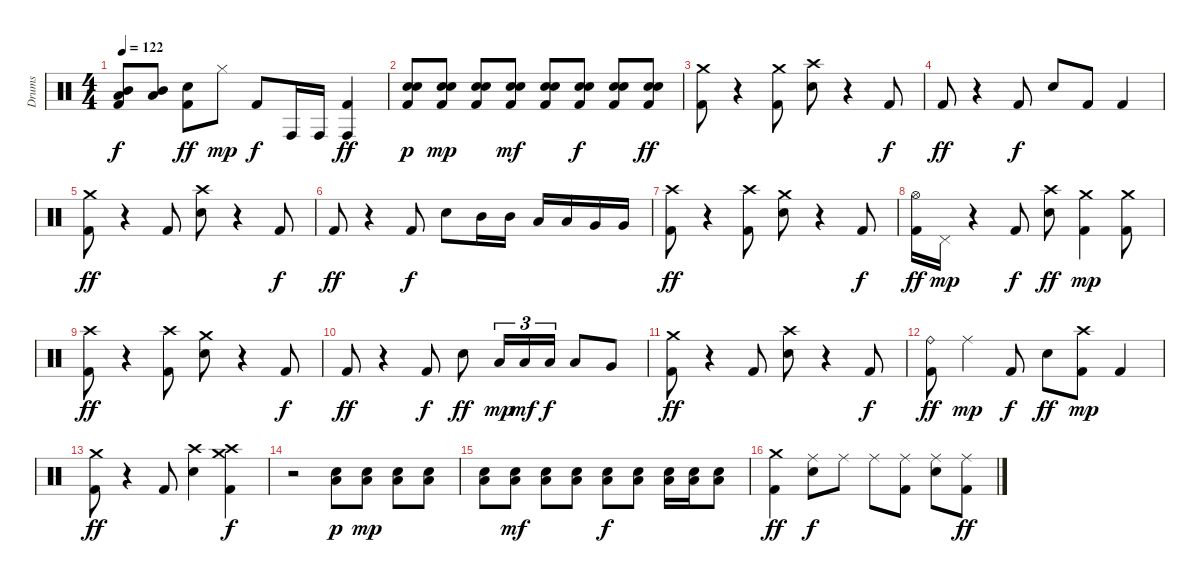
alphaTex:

\track ("Drums" "Drums") {instrument percussion}
\staff {score}
\articulation defaults
\ts (4 4)
\tempo 122
\clef neutral
\ks c
("Mid Tom (hit)" "Kick (hit) 2" "Low Floor Tom (hit)").8{dy f} ("Mid Tom (hit)" "Low Floor Tom (hit)").8 ("Kick (hit) 2" "Snare (hit) 2").8{dy ff} "Hi-Hat (closed)".8{dy mp} "Kick (hit) 2".8{dy f} "Conga high (hit)".16 "Conga high (hit)".16 ("Conga high (hit)" "Kick (hit) 2").4{dy ff} |
("Snare (hit) 2" "Kick (hit) 2" "Snare (hit) 2").8{dy p} ("Snare (hit) 2" "Kick (hit) 2" "Snare (hit) 2").8{dy mp} ("Snare (hit) 2" "Kick (hit) 2" "Snare (hit) 2").8 ("Snare (hit) 2" "Kick (hit) 2" "Snare (hit) 2").8{dy mf} ("Snare (hit) 2" "Kick (hit) 2" "Snare (hit) 2").8 ("Snare (hit) 2" "Kick (hit) 2" "Snare (hit) 2").8{dy f} ("Snare (hit) 2" "Kick (hit) 2" "Snare (hit) 2").8 ("Snare (hit) 2" "Kick (hit) 2" "Snare (hit) 2").8{dy ff} |
("Crash medium (hit)" "Kick (hit) 2").8 r.4 ("Crash medium (hit)" "Kick (hit) 2").8 ("Snare (hit) 2" "Crash high (hit)").8 r.4 "Kick (hit) 2".8{dy f} |
"Kick (hit) 2".8{dy ff} r.4 "Kick (hit) 2".8{dy f} "Snare (hit) 2".8 "Kick (hit) 2".8 "Kick (hit) 2".4 |
("Crash medium (hit)" "Kick (hit) 2").8{dy ff} r.4 "Kick (hit) 2".8 ("Snare (hit) 2" "Crash high (hit)").8 r.4 "Kick (hit) 2".8{dy f} |
"Kick (hit) 2".8{dy ff} r.4 "Kick (hit) 2".8{dy f} "Snare (hit) 2".8 "Mid Tom (hit)".16 "Mid Tom (hit)".16 "Low Tom (hit)".16 "Low Tom (hit)".16 "Very Low Tom (hit)".16 "Very Low Tom (hit)".16 |
("Crash high (hit)" "Kick (hit) 2").8{dy ff} r.4 ("Crash high (hit)" "Kick (hit) 2").8 ("Crash medium (hit)" "Snare (hit) 2").8 r.4 "Kick (hit) 2".8{dy f} |
("Hi-Hat (open)" "Kick (hit) 2").16{dy ff} "Pedal Hi-Hat (hit)".16{dy mp} r.4 "Kick (hit) 2".8{dy f} ("Crash high (hit)" "Snare (hit) 2").8{dy ff} ("Crash medium (hit)" "Kick (hit) 2").4{dy mp} ("Crash medium (hit)" "Kick (hit) 2").8 |
("Crash high (hit)" "Kick (hit) 2").8{dy ff} r.4 ("Crash high (hit)" "Kick (hit) 2").8 ("Crash medium (hit)" "Snare (hit) 2").8 r.4 "Kick (hit) 2".8{dy f} |
"Kick (hit) 2".8{dy ff} r.4 "Kick (hit) 2".8{dy f} "Snare (hit) 2".8{dy ff} "Low Tom (hit)".16{tu (3 2) dy mp} "Low Tom (hit)".16{tu (3 2) dy mf} "Low Tom (hit)".16{tu (3 2) dy f} "Low Tom (hit)".8 "Very Low Tom (hit)".8 |
("Crash medium (hit)" "Kick (hit) 2").8{dy ff} r.4 "Kick (hit) 2".8 ("Snare (hit) 2" "Crash high (hit)").8 r.4 "Kick (hit) 2".8{dy f} |
("Ride (bell)" "Kick (hit) 2").8{dy ff} "Ride (middle)".4{dy mp} "Kick (hit) 2".8{dy f} "Snare (hit) 2".8{dy ff} ("Crash high (hit)" "Kick (hit) 2").8{dy mp} "Kick (hit) 2".4 |
("Crash medium (hit)" "Kick (hit) 2").8{dy ff} r.4 "Kick (hit) 2".8 ("Snare (hit) 2" "Crash high (hit)").4 ("Crash high (hit)" "Crash medium (hit)" "Kick (hit) 2").4{dy f} |
r.2 ("Snare (hit) 2" "Low Floor Tom (hit)").8{dy p} ("Snare (hit) 2" "Low Floor Tom (hit)").8{dy mp} ("Snare (hit) 2" "Low Floor Tom (hit)").8 ("Snare (hit) 2" "Low Floor Tom (hit)").8 |
("Snare (hit) 2" "Low Floor Tom (hit)").8 ("Snare (hit) 2" "Low Floor Tom (hit)").8{dy mf} ("Snare (hit) 2" "Low Floor Tom (hit)").8 ("Snare (hit) 2" "Low Floor Tom (hit)").8 ("Snare (hit) 2" "Low Floor Tom (hit)").8{dy f} ("Snare (hit) 2" "Low Floor Tom (hit)").8 ("Snare (hit) 2" "Low Floor Tom (hit)").16 ("Snare (hit) 2" "Low Floor Tom (hit)").16 ("Snare (hit) 2" "Low Floor Tom (hit)").8 |
("Crash medium (hit)" "Kick (hit) 2").4{dy ff} ("Ride (middle)" "Snare (hit) 2").8{dy f} "Ride (middle)".8 "Ride (middle)".8 ("Ride (middle)" "Kick (hit) 2").8 ("Ride (middle)" "Snare (hit) 2").8 ("Ride (middle)" "Kick (hit) 2").8{dy ff}
